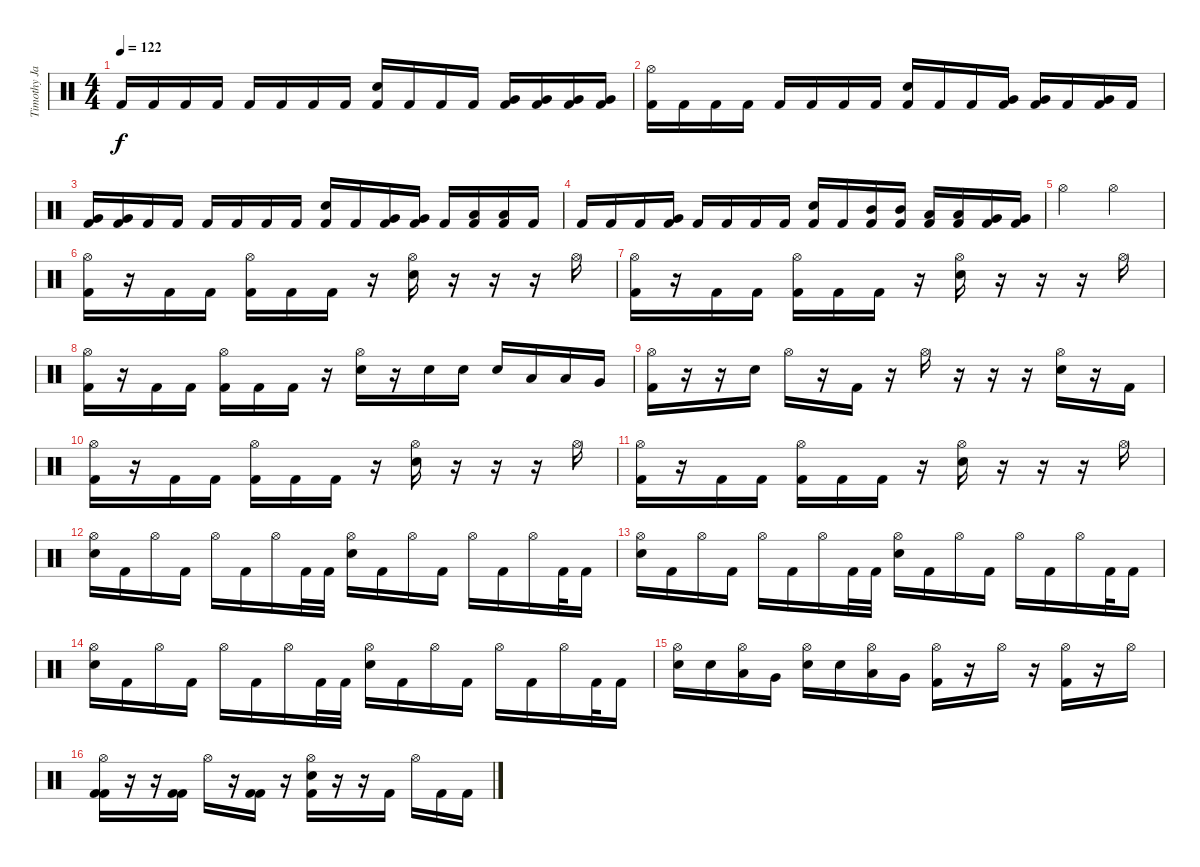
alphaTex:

\track ("Timothy Java" "Timothy Ja") {instrument percussion}
\staff {score}
\articulation defaults
\ts (4 4)
\tempo 122
\clef neutral
\ks c "Kick (hit) 2".16{dy f} "Kick (hit) 2".16 "Kick (hit) 2".16 "Kick (hit) 2".16 "Kick (hit) 2".16 "Kick (hit) 2".16 "Kick (hit) 2".16 "Kick (hit) 2".16
("Electric Snare (hit)" "Kick (hit) 2").16 "Kick (hit) 2".16 "Kick (hit) 2".16 "Kick (hit) 2".16 ("Very Low Tom (hit)" "Kick (hit) 2").16 ("Very Low Tom (hit)" "Kick (hit) 2").16 ("Very Low Tom (hit)" "Kick (hit) 2").16 ("Very Low Tom (hit)" "Kick (hit) 2").16 |
("Hi-Hat (open)" "Kick (hit) 2").16 "Kick (hit) 2".16 "Kick (hit) 2".16 "Kick (hit) 2".16 "Kick (hit) 2".16 "Kick (hit) 2".16 "Kick (hit) 2".16 "Kick (hit) 2".16 ("Electric Snare (hit)" "Kick (hit) 2").16 "Kick (hit) 2".16 "Kick (hit) 2".16 ("Very Low Tom (hit)" "Kick (hit) 2").16 ("Very Low Tom (hit)" "Kick (hit) 2").16 "Kick (hit) 2".16 ("Very Low Tom (hit)" "Kick (hit) 2").16 "Kick (hit) 2".16 |
("Very Low Tom (hit)" "Kick (hit) 2").16 ("Very Low Tom (hit)" "Kick (hit) 2").16 "Kick (hit) 2".16 "Kick (hit) 2".16 "Kick (hit) 2".16 "Kick (hit) 2".16 "Kick (hit) 2".16 "Kick (hit) 2".16 ("Electric Snare (hit)" "Kick (hit) 2").16 "Kick (hit) 2".16 ("Very Low Tom (hit)" "Kick (hit) 2").16 ("Very Low Tom (hit)" "Kick (hit) 2").16 "Kick (hit) 2".16 ("Low Tom (hit)" "Kick (hit) 2").16 ("Low Tom (hit)" "Kick (hit) 2").16 "Kick (hit) 2".16 |
"Kick (hit) 2".16 "Kick (hit) 2".16 "Kick (hit) 2".16 ("Very Low Tom (hit)" "Kick (hit) 2").16 "Kick (hit) 2".16 "Kick (hit) 2".16 "Kick (hit) 2".16 "Kick (hit) 2".16 ("Electric Snare (hit)" "Kick (hit) 2").16 "Kick (hit) 2".16 ("Mid Tom (hit)" "Kick (hit) 2").16 ("Mid Tom (hit)" "Kick (hit) 2").16 ("Low Tom (hit)" "Kick (hit) 2").16 ("Low Tom (hit)" "Kick (hit) 2").16 ("Very Low Tom (hit)" "Kick (hit) 2").16 ("Very Low Tom (hit)" "Kick (hit) 2").16 |
"Hi-Hat (open)".2 "Hi-Hat (open)".2 |
("Hi-Hat (open)" "Kick (hit) 2").16 r.16 "Kick (hit) 2".16 "Kick (hit) 2".16 ("Hi-Hat (open)" "Kick (hit) 2").16 "Kick (hit) 2".16 "Kick (hit) 2".16 r.16 ("Hi-Hat (open)" "Electric Snare (hit)").16 r.16 r.16 r.16 "Hi-Hat (open)".16 |
("Hi-Hat (open)" "Kick (hit) 2").16 r.16 "Kick (hit) 2".16 "Kick (hit) 2".16 ("Hi-Hat (open)" "Kick (hit) 2").16 "Kick (hit) 2".16 "Kick (hit) 2".16 r.16 ("Hi-Hat (open)" "Electric Snare (hit)").16 r.16 r.16 r.16 "Hi-Hat (open)".16 |
("Hi-Hat (open)" "Kick (hit) 2").16 r.16 "Kick (hit) 2".16 "Kick (hit) 2".16 ("Hi-Hat (open)" "Kick (hit) 2").16 "Kick (hit) 2".16 "Kick (hit) 2".16 r.16 ("Hi-Hat (open)" "Electric Snare (hit)").16 r.16 "Electric Snare (hit)".16 "Electric Snare (hit)".16 "Electric Snare (hit)".16 "Low Tom (hit)".16 "Low Tom (hit)".16 "Very Low Tom (hit)".16 |
("Hi-Hat (open)" "Kick (hit) 2").16 r.16 r.16 "Electric Snare (hit)".16 "Hi-Hat (open)".16 r.16 "Kick (hit) 2".16 r.16 "Hi-Hat (open)".16 r.16 r.16 r.16 ("Hi-Hat (open)" "Electric Snare (hit)").16 r.16 "Kick (hit) 2".16 |
("Hi-Hat (open)" "Kick (hit) 2").16 r.16 "Kick (hit) 2".16 "Kick (hit) 2".16 ("Hi-Hat (open)" "Kick (hit) 2").16 "Kick (hit) 2".16 "Kick (hit) 2".16 r.16 ("Hi-Hat (open)" "Electric Snare (hit)").16 r.16 r.16 r.16 "Hi-Hat (open)".16 |
("Hi-Hat (open)" "Kick (hit) 2").16 r.16 "Kick (hit) 2".16 "Kick (hit) 2".16 ("Hi-Hat (open)" "Kick (hit) 2").16 "Kick (hit) 2".16 "Kick (hit) 2".16 r.16 ("Hi-Hat (open)" "Electric Snare (hit)").16 r.16 r.16 r.16 "Hi-Hat (open)".16 |
("Hi-Hat (open)" "Electric Snare (hit)").16 "Kick (hit) 2".16 "Hi-Hat (open)".16 "Kick (hit) 2".16 "Hi-Hat (open)".16 "Kick (hit) 2".16 "Hi-Hat (open)".16 "Kick (hit) 2".32 "Kick (hit) 2".32 ("Hi-Hat (open)" "Electric Snare (hit)").16 "Kick (hit) 2".16 "Hi-Hat (open)".16 "Kick (hit) 2".16 "Hi-Hat (open)".16 "Kick (hit) 2".16 "Hi-Hat (open)".16 "Kick (hit) 2".32 "Kick (hit) 2".16 |
("Hi-Hat (open)" "Electric Snare (hit)").16 "Kick (hit) 2".16 "Hi-Hat (open)".16 "Kick (hit) 2".16 "Hi-Hat (open)".16 "Kick (hit) 2".16 "Hi-Hat (open)".16 "Kick (hit) 2".32 "Kick (hit) 2".32 ("Hi-Hat (open)" "Electric Snare (hit)").16 "Kick (hit) 2".16 "Hi-Hat (open)".16 "Kick (hit) 2".16 "Hi-Hat (open)".16 "Kick (hit) 2".16 "Hi-Hat (open)".16 "Kick (hit) 2".32 "Kick (hit) 2".16 |
("Hi-Hat (open)" "Electric Snare (hit)").16 "Kick (hit) 2".16 "Hi-Hat (open)".16 "Kick (hit) 2".16 "Hi-Hat (open)".16 "Kick (hit) 2".16 "Hi-Hat (open)".16 "Kick (hit) 2".32 "Kick (hit) 2".32 ("Hi-Hat (open)" "Electric Snare (hit)").16 "Kick (hit) 2".16 "Hi-Hat (open)".16 "Kick (hit) 2".16 "Hi-Hat (open)".16 "Kick (hit) 2".16 "Hi-Hat (open)".16 "Kick (hit) 2".32 "Kick (hit) 2".16 |
("Hi-Hat (open)" "Electric Snare (hit)").16 "Electric Snare (hit)".16 ("Hi-Hat (open)" "Low Tom (hit)").16 "Very Low Tom (hit)".16 ("Hi-Hat (open)" "Electric Snare (hit)").16 "Electric Snare (hit)".16 ("Hi-Hat (open)" "Low Tom (hit)").16 "Very Low Tom (hit)".16 ("Hi-Hat (open)" "Kick (hit) 2").16 r.16 "Hi-Hat (open)".16 r.16 ("Hi-Hat (open)" "Kick (hit) 2").16 r.16 "Hi-Hat (open)".16 |
("Kick (hit) 2" "Kick (hit) 2" "Hi-Hat (open)").16 r.16 r.16 ("Kick (hit) 2" "Kick (hit) 2").16 "Hi-Hat (open)".16 r.16 ("Kick (hit) 2" "Kick (hit) 2").16 r.16 ("Kick (hit) 2" "Electric Snare (hit)" "Hi-Hat (open)").16 r.16 r.16 "Kick (hit) 2".16 "Hi-Hat (open)".16 "Kick (hit) 2".16 "Kick (hit) 2".16
